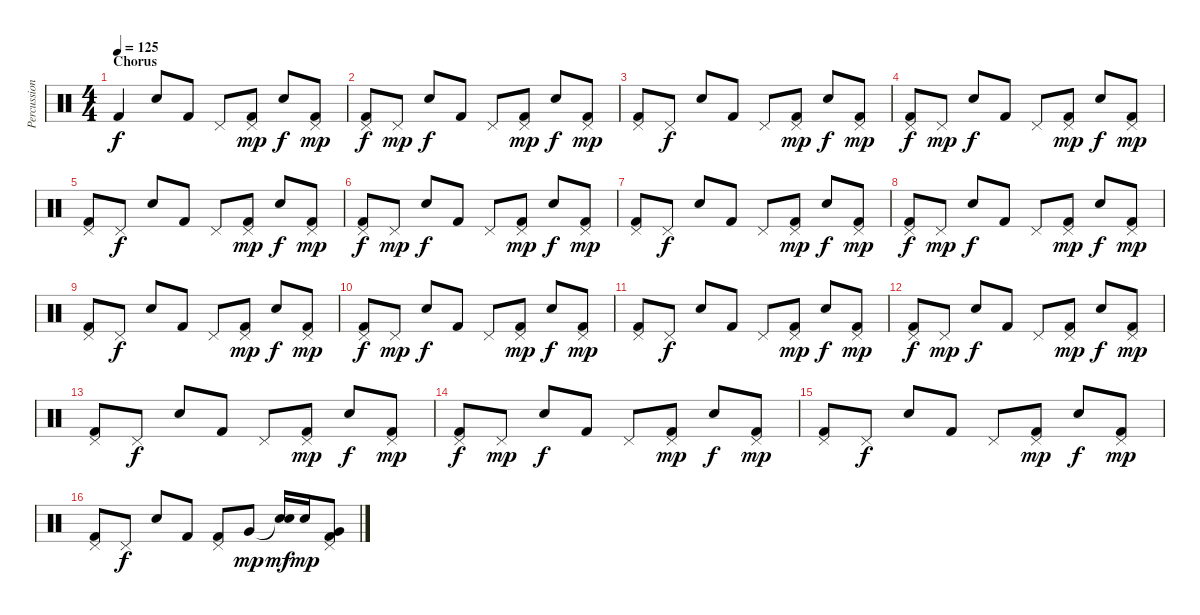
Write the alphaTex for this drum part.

\track ("Percussion" "Percussion") {instrument percussion}
\staff {score}
\articulation defaults
\ts (4 4)
\section ("" "Chorus")
\tempo 125
\clef neutral
\ks c "Kick (hit) 2".4{dy f} "Electric Snare (hit)".8 "Kick (hit) 2".8 "Pedal Hi-Hat (hit)".8
("Pedal Hi-Hat (hit)" "Kick (hit) 2").8{dy mp} "Electric Snare (hit)".8{dy f} ("Pedal Hi-Hat (hit)" "Kick (hit) 2").8{dy mp} |
("Pedal Hi-Hat (hit)" "Kick (hit) 2").8{dy f} "Pedal Hi-Hat (hit)".8{dy mp} "Electric Snare (hit)".8{dy f} "Kick (hit) 2".8 "Pedal Hi-Hat (hit)".8 ("Pedal Hi-Hat (hit)" "Kick (hit) 2").8{dy mp} "Electric Snare (hit)".8{dy f} ("Pedal Hi-Hat (hit)" "Kick (hit) 2").8{dy mp} |
("Pedal Hi-Hat (hit)" "Kick (hit) 2").8 "Pedal Hi-Hat (hit)".8{dy f} "Electric Snare (hit)".8 "Kick (hit) 2".8 "Pedal Hi-Hat (hit)".8 ("Pedal Hi-Hat (hit)" "Kick (hit) 2").8{dy mp} "Electric Snare (hit)".8{dy f} ("Pedal Hi-Hat (hit)" "Kick (hit) 2").8{dy mp} |
("Pedal Hi-Hat (hit)" "Kick (hit) 2").8{dy f} "Pedal Hi-Hat (hit)".8{dy mp} "Electric Snare (hit)".8{dy f} "Kick (hit) 2".8 "Pedal Hi-Hat (hit)".8 ("Pedal Hi-Hat (hit)" "Kick (hit) 2").8{dy mp} "Electric Snare (hit)".8{dy f} ("Pedal Hi-Hat (hit)" "Kick (hit) 2").8{dy mp} |
("Pedal Hi-Hat (hit)" "Kick (hit) 2").8 "Pedal Hi-Hat (hit)".8{dy f} "Electric Snare (hit)".8 "Kick (hit) 2".8 "Pedal Hi-Hat (hit)".8 ("Pedal Hi-Hat (hit)" "Kick (hit) 2").8{dy mp} "Electric Snare (hit)".8{dy f} ("Pedal Hi-Hat (hit)" "Kick (hit) 2").8{dy mp} |
("Pedal Hi-Hat (hit)" "Kick (hit) 2").8{dy f} "Pedal Hi-Hat (hit)".8{dy mp} "Electric Snare (hit)".8{dy f} "Kick (hit) 2".8 "Pedal Hi-Hat (hit)".8 ("Pedal Hi-Hat (hit)" "Kick (hit) 2").8{dy mp} "Electric Snare (hit)".8{dy f} ("Pedal Hi-Hat (hit)" "Kick (hit) 2").8{dy mp} |
("Pedal Hi-Hat (hit)" "Kick (hit) 2").8 "Pedal Hi-Hat (hit)".8{dy f} "Electric Snare (hit)".8 "Kick (hit) 2".8 "Pedal Hi-Hat (hit)".8 ("Pedal Hi-Hat (hit)" "Kick (hit) 2").8{dy mp} "Electric Snare (hit)".8{dy f} ("Pedal Hi-Hat (hit)" "Kick (hit) 2").8{dy mp} |
("Pedal Hi-Hat (hit)" "Kick (hit) 2").8{dy f} "Pedal Hi-Hat (hit)".8{dy mp} "Electric Snare (hit)".8{dy f} "Kick (hit) 2".8 "Pedal Hi-Hat (hit)".8 ("Pedal Hi-Hat (hit)" "Kick (hit) 2").8{dy mp} "Electric Snare (hit)".8{dy f} ("Pedal Hi-Hat (hit)" "Kick (hit) 2").8{dy mp} |
("Pedal Hi-Hat (hit)" "Kick (hit) 2").8 "Pedal Hi-Hat (hit)".8{dy f} "Electric Snare (hit)".8 "Kick (hit) 2".8 "Pedal Hi-Hat (hit)".8 ("Pedal Hi-Hat (hit)" "Kick (hit) 2").8{dy mp} "Electric Snare (hit)".8{dy f} ("Pedal Hi-Hat (hit)" "Kick (hit) 2").8{dy mp} |
("Pedal Hi-Hat (hit)" "Kick (hit) 2").8{dy f} "Pedal Hi-Hat (hit)".8{dy mp} "Electric Snare (hit)".8{dy f} "Kick (hit) 2".8 "Pedal Hi-Hat (hit)".8 ("Pedal Hi-Hat (hit)" "Kick (hit) 2").8{dy mp} "Electric Snare (hit)".8{dy f} ("Pedal Hi-Hat (hit)" "Kick (hit) 2").8{dy mp} |
("Pedal Hi-Hat (hit)" "Kick (hit) 2").8 "Pedal Hi-Hat (hit)".8{dy f} "Electric Snare (hit)".8 "Kick (hit) 2".8 "Pedal Hi-Hat (hit)".8 ("Pedal Hi-Hat (hit)" "Kick (hit) 2").8{dy mp} "Electric Snare (hit)".8{dy f} ("Pedal Hi-Hat (hit)" "Kick (hit) 2").8{dy mp} |
("Pedal Hi-Hat (hit)" "Kick (hit) 2").8{dy f} "Pedal Hi-Hat (hit)".8{dy mp} "Electric Snare (hit)".8{dy f} "Kick (hit) 2".8 "Pedal Hi-Hat (hit)".8 ("Pedal Hi-Hat (hit)" "Kick (hit) 2").8{dy mp} "Electric Snare (hit)".8{dy f} ("Pedal Hi-Hat (hit)" "Kick (hit) 2").8{dy mp} |
("Pedal Hi-Hat (hit)" "Kick (hit) 2").8 "Pedal Hi-Hat (hit)".8{dy f} "Electric Snare (hit)".8 "Kick (hit) 2".8 "Pedal Hi-Hat (hit)".8 ("Pedal Hi-Hat (hit)" "Kick (hit) 2").8{dy mp} "Electric Snare (hit)".8{dy f} ("Pedal Hi-Hat (hit)" "Kick (hit) 2").8{dy mp} |
("Pedal Hi-Hat (hit)" "Kick (hit) 2").8{dy f} "Pedal Hi-Hat (hit)".8{dy mp} "Electric Snare (hit)".8{dy f} "Kick (hit) 2".8 "Pedal Hi-Hat (hit)".8 ("Pedal Hi-Hat (hit)" "Kick (hit) 2").8{dy mp} "Electric Snare (hit)".8{dy f} ("Pedal Hi-Hat (hit)" "Kick (hit) 2").8{dy mp} |
("Pedal Hi-Hat (hit)" "Kick (hit) 2").8 "Pedal Hi-Hat (hit)".8{dy f} "Electric Snare (hit)".8 "Kick (hit) 2".8 "Pedal Hi-Hat (hit)".8 ("Pedal Hi-Hat (hit)" "Kick (hit) 2").8{dy mp} "Electric Snare (hit)".8{dy f} ("Pedal Hi-Hat (hit)" "Kick (hit) 2").8{dy mp} |
("Pedal Hi-Hat (hit)" "Kick (hit) 2").8 "Pedal Hi-Hat (hit)".8{dy f} "Electric Snare (hit)".8 "Kick (hit) 2".8 ("Pedal Hi-Hat (hit)" "Kick (hit) 2").8 "Very Low Tom (hit)".8{dy mp} ("Snare (hit)"{t} "Electric Snare (hit)").16{dy mf} "Electric Snare (hit)".16{dy mp} ("Pedal Hi-Hat (hit)" "Very Low Tom (hit)" "Kick (hit) 2").8
